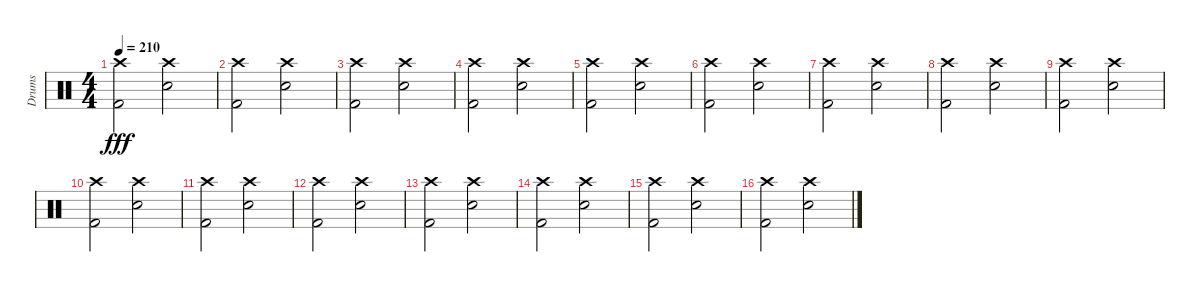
\track ("Drums" "Drums") {instrument percussion}
\staff {score}
\articulation defaults
\ts (4 4)
\tempo 210
\clef neutral
\ks c
("Crash high (hit)" "Kick (hit) 2").2{dy fff} ("Crash high (hit)" "Electric Snare (hit)").2 |
("Crash high (hit)" "Kick (hit) 2").2 ("Crash high (hit)" "Electric Snare (hit)").2 |
("Crash high (hit)" "Kick (hit) 2").2 ("Crash high (hit)" "Electric Snare (hit)").2 |
("Crash high (hit)" "Kick (hit) 2").2 ("Crash high (hit)" "Electric Snare (hit)").2 |
("Crash high (hit)" "Kick (hit) 2").2 ("Crash high (hit)" "Electric Snare (hit)").2 |
("Crash high (hit)" "Kick (hit) 2").2 ("Crash high (hit)" "Electric Snare (hit)").2 |
("Crash high (hit)" "Kick (hit) 2").2 ("Crash high (hit)" "Electric Snare (hit)").2 |
("Crash high (hit)" "Kick (hit) 2").2 ("Crash high (hit)" "Electric Snare (hit)").2 |
("Crash high (hit)" "Kick (hit) 2").2 ("Crash high (hit)" "Electric Snare (hit)").2 |
("Crash high (hit)" "Kick (hit) 2").2 ("Crash high (hit)" "Electric Snare (hit)").2 |
("Crash high (hit)" "Kick (hit) 2").2 ("Crash high (hit)" "Electric Snare (hit)").2 |
("Crash high (hit)" "Kick (hit) 2").2 ("Crash high (hit)" "Electric Snare (hit)").2 |
("Crash high (hit)" "Kick (hit) 2").2 ("Crash high (hit)" "Electric Snare (hit)").2 |
("Crash high (hit)" "Kick (hit) 2").2 ("Crash high (hit)" "Electric Snare (hit)").2 |
("Crash high (hit)" "Kick (hit) 2").2 ("Crash high (hit)" "Electric Snare (hit)").2 |
("Crash high (hit)" "Kick (hit) 2").2 ("Crash high (hit)" "Electric Snare (hit)").2
